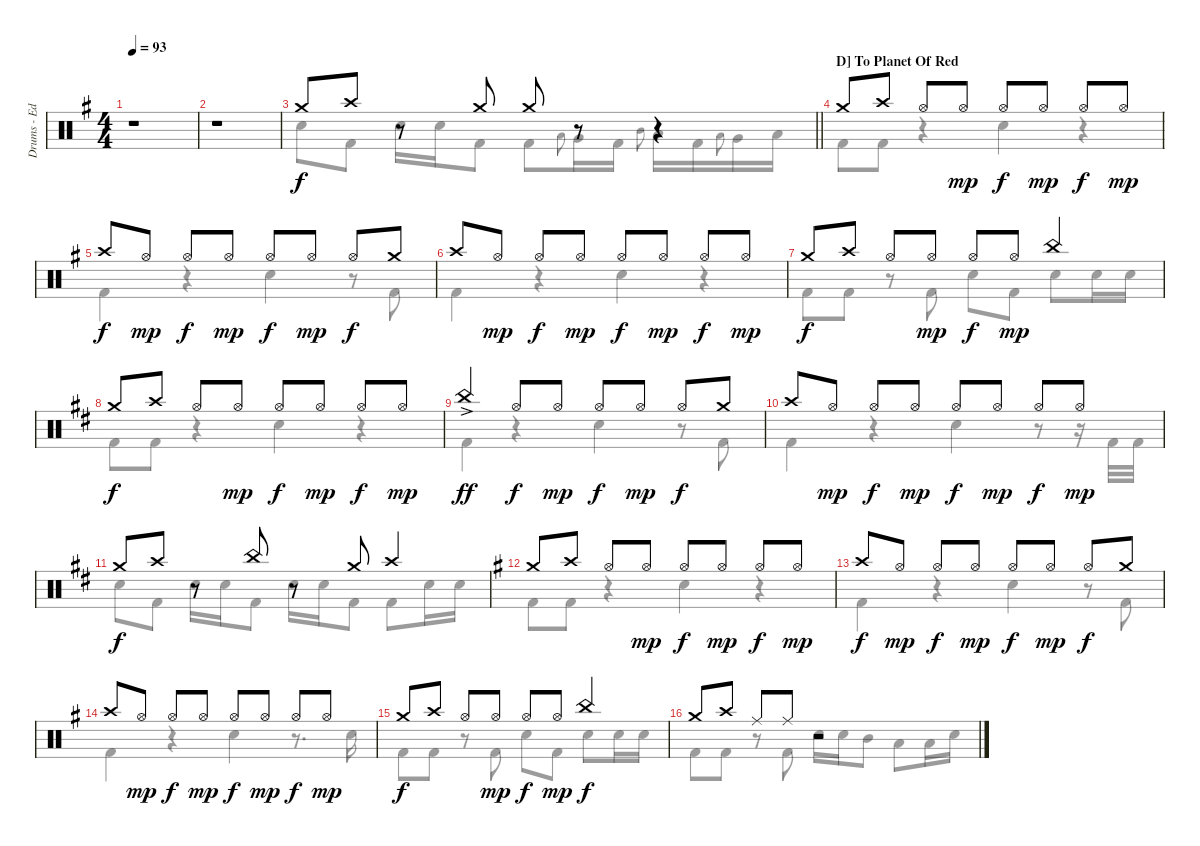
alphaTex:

\track ("Drums - Ed Warby" "Drums - Ed") {instrument percussion}
\staff {score}
\articulation defaults
\voice
\ts (4 4)
\tempo 93
\clef neutral
\ks eminor
r.1{dy mf} |
r.1 |
\barLineRight lightlight "Crash medium (hit)".8{dy f} "Crash high (hit)".8
r.8 "Crash medium (hit)".8 "Crash medium (hit)".8 r.8 r.4 |
\section ("" "D] To Planet Of Red")
"Crash medium (hit)".8 "Crash high (hit)".8 "Hi-Hat (open)".8 "Hi-Hat (open)".8{dy mp} "Hi-Hat (open)".8{dy f} "Hi-Hat (open)".8{dy mp} "Hi-Hat (open)".8{dy f} "Hi-Hat (open)".8{dy mp} |
"Crash high (hit)".8{dy f} "Hi-Hat (open)".8{dy mp} "Hi-Hat (open)".8{dy f} "Hi-Hat (open)".8{dy mp} "Hi-Hat (open)".8{dy f} "Hi-Hat (open)".8{dy mp} "Hi-Hat (open)".8{dy f} "Crash medium (hit)".8 |
"Crash high (hit)".8 "Hi-Hat (open)".8{dy mp} "Hi-Hat (open)".8{dy f} "Hi-Hat (open)".8{dy mp} "Hi-Hat (open)".8{dy f} "Hi-Hat (open)".8{dy mp} "Hi-Hat (open)".8{dy f} "Hi-Hat (open)".8{dy mp} |
"Crash medium (hit)".8{dy f} "Crash high (hit)".8 "Hi-Hat (open)".8 "Hi-Hat (open)".8{dy mp} "Hi-Hat (open)".8{dy f} "Hi-Hat (open)".8{dy mp} "China (hit)".4 |
\ks bminor "Crash medium (hit)".8{dy f} "Crash high (hit)".8 "Hi-Hat (open)".8 "Hi-Hat (open)".8{dy mp} "Hi-Hat (open)".8{dy f} "Hi-Hat (open)".8{dy mp} "Hi-Hat (open)".8{dy f} "Hi-Hat (open)".8{dy mp}
|
"China (hit)"{ac}.4{dy ff} "Hi-Hat (open)".8{dy f} "Hi-Hat (open)".8{dy mp} "Hi-Hat (open)".8{dy f} "Hi-Hat (open)".8{dy mp} "Hi-Hat (open)".8{dy f} "Crash medium (hit)".8 |
"Crash high (hit)".8 "Hi-Hat (open)".8{dy mp} "Hi-Hat (open)".8{dy f} "Hi-Hat (open)".8{dy mp} "Hi-Hat (open)".8{dy f} "Hi-Hat (open)".8{dy mp} "Hi-Hat (open)".8{dy f} "Hi-Hat (open)".8{dy mp} |
"Crash medium (hit)".8{dy f} "Crash high (hit)".8 r.8 "China (hit)".8 r.8 "Crash medium (hit)".8 "Crash high (hit)".4 |
\ks eminor "Crash medium (hit)".8 "Crash high (hit)".8 "Hi-Hat (open)".8 "Hi-Hat (open)".8{dy mp} "Hi-Hat (open)".8{dy f} "Hi-Hat (open)".8{dy mp} "Hi-Hat (open)".8{dy f} "Hi-Hat (open)".8{dy mp}
|
"Crash high (hit)".8{dy f} "Hi-Hat (open)".8{dy mp} "Hi-Hat (open)".8{dy f} "Hi-Hat (open)".8{dy mp} "Hi-Hat (open)".8{dy f} "Hi-Hat (open)".8{dy mp} "Hi-Hat (open)".8{dy f} "Crash medium (hit)".8 |
"Crash high (hit)".8 "Hi-Hat (open)".8{dy mp} "Hi-Hat (open)".8{dy f} "Hi-Hat (open)".8{dy mp} "Hi-Hat (open)".8{dy f} "Hi-Hat (open)".8{dy mp} "Hi-Hat (open)".8{dy f} "Hi-Hat (open)".8{dy mp} |
"Crash medium (hit)".8{dy f} "Crash high (hit)".8 "Hi-Hat (open)".8 "Hi-Hat (open)".8{dy mp} "Hi-Hat (open)".8{dy f} "Hi-Hat (open)".8{dy mp} "China (hit)".4{dy f} |
"Crash medium (hit)".8 "Crash high (hit)".8 "Ride (middle)".8 "Ride (middle)".8 r.2
\voice
\clef neutral
\ottava regular
\simile none
\ks eminor
|
|
\barLineRight lightlight "Snare (hit) 2".8{dy f} "Kick (hit) 2".8 "Snare (hit) 2".16 "Snare (hit) 2".16 "Kick (hit) 2".8 "Kick (hit) 2".8 "Low Tom (hit)".8{gr onbeat} "Very Low Tom (hit)".16 "Kick (hit) 2".16 "Mid Tom (hit)".8{gr onbeat} "Low Tom (hit)".16 "Kick (hit) 2".16 "Low Tom (hit)".8{gr onbeat} "Very Low Tom (hit)".16 "Low Floor Tom (hit)".16
|
"Kick (hit) 2".8 "Kick (hit) 2".8 r.4 "Snare (hit) 2".4 r.4 |
"Kick (hit) 2".4 r.4 "Snare (hit) 2".4 r.8 "Kick (hit) 2".8 |
"Kick (hit) 2".4 r.4 "Snare (hit) 2".4 r.4 |
"Kick (hit) 2".8 "Kick (hit) 2".8 r.8 "Kick (hit) 2".8 "Snare (hit) 2".8 "Kick (hit) 2".8 "Snare (hit) 2".8 "Snare (hit) 2".16 "Snare (hit) 2".16 |
\ks bminor "Kick (hit) 2".8 "Kick (hit) 2".8
r.4 "Snare (hit) 2".4 r.4 |
"Kick (hit) 2".4 r.4 "Snare (hit) 2".4 r.8 "Kick (hit) 2".8 |
"Kick (hit) 2".4 r.4 "Snare (hit) 2".4 r.8 r.16 "Kick (hit) 2".32 "Kick (hit) 2".32 |
"Snare (hit) 2".8 "Kick (hit) 2".8 "Snare (hit) 2".16 "Snare (hit) 2".16 "Kick (hit) 2".8 "Snare (hit) 2".16 "Snare (hit) 2".16 "Kick (hit) 2".8 "Kick (hit) 2".8 "Snare (hit) 2".16 "Snare (hit) 2".16 |
\ks eminor "Kick (hit) 2".8 "Kick (hit) 2".8
r.4 "Snare (hit) 2".4 r.4 |
"Kick (hit) 2".4 r.4 "Snare (hit) 2".4 r.8 "Kick (hit) 2".8 |
"Kick (hit) 2".4 r.4 "Snare (hit) 2".4 r.8{d} "Snare (hit) 2".16 |
"Kick (hit) 2".8 "Kick (hit) 2".8 r.8 "Kick (hit) 2".8 "Snare (hit) 2".8 "Kick (hit) 2".8 "Snare (hit) 2".8 "Snare (hit) 2".16 "Snare (hit) 2".16 |
"Kick (hit) 2".8 "Kick (hit) 2".8 r.8 "Kick (hit) 2".8 "Snare (hit) 2".16 "Snare (hit) 2".16 "Mid Tom (hit)".8 "Low Tom (hit)".8 "Low Tom (hit)".16 "Snare (hit) 2".16
